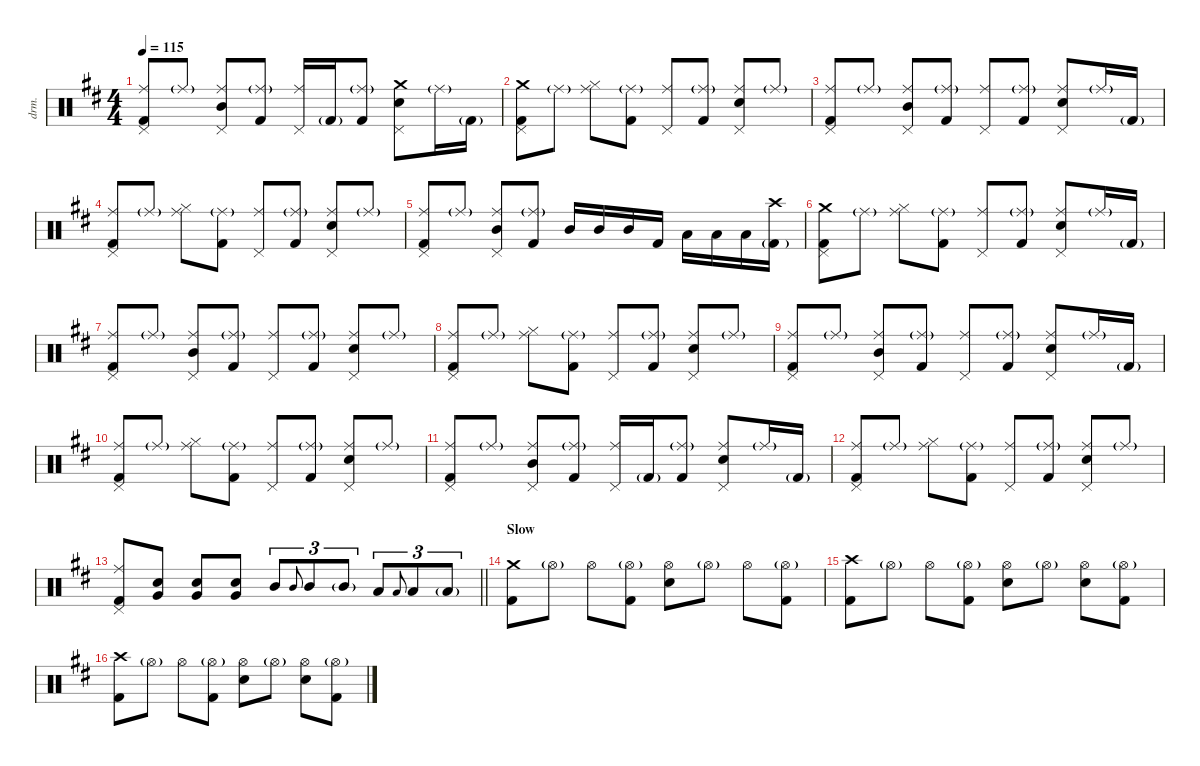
\defaultSystemsLayout 4
\hideDynamics
\bracketExtendMode nobrackets
\track ("Atma Anur" "drm.") {solo instrument percussion}
\staff {score}
\articulation defaults
\ts (4 4)
\tempo 115
\clef neutral
\ks bminor
("Ride (middle)"{acc forcenatural} "Pedal Hi-Hat (hit)"{acc forcenatural} "Kick (hit) 2"{acc forcenatural}).8{dy fff beam Up} "Ride (middle)"{g acc forcenatural}.8{dy ff beam Up} ("Ride (middle)"{acc forcenatural} "Mid Tom (hit)"{acc forcenatural} "Pedal Hi-Hat (hit)"{acc forcenatural}).8{dy fff beam Up} ("Ride (middle)"{g acc forcenatural} "Kick (hit) 2"{acc forcenatural}).8{beam Up} ("Ride (middle)"{acc forcenatural} "Pedal Hi-Hat (hit)"{acc forcenatural}).16{beam Up} "Kick (hit) 2"{g acc forcenatural}.16{dy ff beam Up} ("Ride (middle)"{g acc forcenatural} "Kick (hit) 2"{acc forcenatural}).8{dy fff beam Up} ("Crash medium (hit)"{acc forcenatural} "Snare (hit) 2"{acc forcenatural} "Pedal Hi-Hat (hit)"{acc forcenatural}).8{beam Down} "Ride (middle)"{g acc forcenatural}.16{dy ff beam Down} "Kick (hit) 2"{g acc forcenatural}.16{beam Down} |
("Crash medium (hit)"{acc forcenatural} "Pedal Hi-Hat (hit)"{acc forcenatural} "Kick (hit) 2"{acc forcenatural}).8{dy fff beam Down} "Ride (middle)"{g acc forcenatural}.8{dy ff beam Down} ("Ride (middle)"{acc forcenatural} "Hi-Hat (closed)"{acc forcenatural}).8{dy fff beam Down} ("Ride (middle)"{g acc forcenatural} "Kick (hit) 2"{acc forcenatural}).8{beam Down} ("Ride (middle)"{acc forcenatural} "Pedal Hi-Hat (hit)"{acc forcenatural}).8{beam Up} ("Ride (middle)"{g acc forcenatural} "Kick (hit) 2"{acc forcenatural}).8{beam Up} ("Ride (middle)"{acc forcenatural} "Snare (hit) 2"{acc forcenatural} "Pedal Hi-Hat (hit)"{acc forcenatural}).8{beam Up} "Ride (middle)"{g acc forcenatural}.8{dy ff beam Up} |
("Ride (middle)"{acc forcenatural} "Pedal Hi-Hat (hit)"{acc forcenatural} "Kick (hit) 2"{acc forcenatural}).8{dy fff beam Up} "Ride (middle)"{g acc forcenatural}.8{dy ff beam Up} ("Ride (middle)"{acc forcenatural} "Mid Tom (hit)"{acc forcenatural} "Pedal Hi-Hat (hit)"{acc forcenatural}).8{dy fff beam Up} ("Ride (middle)"{g acc forcenatural} "Kick (hit) 2"{acc forcenatural}).8{beam Up} ("Ride (middle)"{acc forcenatural} "Pedal Hi-Hat (hit)"{acc forcenatural}).8{beam Up} ("Ride (middle)"{g acc forcenatural} "Kick (hit) 2"{acc forcenatural}).8{beam Up} ("Ride (middle)"{acc forcenatural} "Snare (hit) 2"{acc forcenatural} "Pedal Hi-Hat (hit)"{acc forcenatural}).8{beam Up} "Ride (middle)"{g acc forcenatural}.16{dy ff beam Up} "Kick (hit) 2"{g acc forcenatural}.16{beam Up} |
("Ride (middle)"{acc forcenatural} "Pedal Hi-Hat (hit)"{acc forcenatural} "Kick (hit) 2"{acc forcenatural}).8{dy fff beam Up} "Ride (middle)"{g acc forcenatural}.8{dy ff beam Up} ("Ride (middle)"{acc forcenatural} "Hi-Hat (closed)"{acc forcenatural}).8{dy fff beam Down} ("Ride (middle)"{g acc forcenatural} "Kick (hit) 2"{acc forcenatural}).8{beam Down} ("Ride (middle)"{acc forcenatural} "Pedal Hi-Hat (hit)"{acc forcenatural}).8{beam Up} ("Ride (middle)"{g acc forcenatural} "Kick (hit) 2"{acc forcenatural}).8{beam Up} ("Ride (middle)"{acc forcenatural} "Snare (hit) 2"{acc forcenatural} "Pedal Hi-Hat (hit)"{acc forcenatural}).8{beam Up} "Ride (middle)"{g acc forcenatural}.8{dy ff beam Up} |
("Ride (middle)"{acc forcenatural} "Pedal Hi-Hat (hit)"{acc forcenatural} "Kick (hit) 2"{acc forcenatural}).8{dy fff beam Up} "Ride (middle)"{g acc forcenatural}.8{dy ff beam Up} ("Ride (middle)"{acc forcenatural} "Mid Tom (hit)"{acc forcenatural} "Pedal Hi-Hat (hit)"{acc forcenatural}).8{dy fff beam Up} ("Ride (middle)"{g acc forcenatural} "Kick (hit) 2"{acc forcenatural}).8{beam Up} "Mid Tom (hit)"{acc forcenatural}.16{beam Up} "Mid Tom (hit)"{acc forcenatural}.16{beam Up} "Mid Tom (hit)"{acc forcenatural}.16{beam Up} "Kick (hit) 2"{acc forcenatural}.16{beam Up} "Low Tom (hit)"{acc forcenatural}.16{beam Down} "Low Tom (hit)"{acc forcenatural}.16{beam Down} "Low Tom (hit)"{acc forcenatural}.16{beam Down} ("Crash high (hit)"{acc forcenatural} "Kick (hit) 2"{g acc forcenatural}).16{beam Down} |
("Crash medium (hit)"{acc forcenatural} "Pedal Hi-Hat (hit)"{acc forcenatural} "Kick (hit) 2"{acc forcenatural}).8{beam Down} "Ride (middle)"{g acc forcenatural}.8{dy ff beam Down} ("Ride (middle)"{acc forcenatural} "Hi-Hat (closed)"{acc forcenatural}).8{dy fff beam Down} ("Ride (middle)"{g acc forcenatural} "Kick (hit) 2"{acc forcenatural}).8{beam Down} ("Ride (middle)"{acc forcenatural} "Pedal Hi-Hat (hit)"{acc forcenatural}).8{beam Up} ("Ride (middle)"{g acc forcenatural} "Kick (hit) 2"{acc forcenatural}).8{beam Up} ("Ride (middle)"{acc forcenatural} "Snare (hit) 2"{acc forcenatural} "Pedal Hi-Hat (hit)"{acc forcenatural}).8{beam Up} "Ride (middle)"{g acc forcenatural}.16{dy ff beam Up} "Kick (hit) 2"{g acc forcenatural}.16{beam Up} |
("Ride (middle)"{acc forcenatural} "Pedal Hi-Hat (hit)"{acc forcenatural} "Kick (hit) 2"{acc forcenatural}).8{dy fff beam Up} "Ride (middle)"{g acc forcenatural}.8{dy ff beam Up} ("Ride (middle)"{acc forcenatural} "Mid Tom (hit)"{acc forcenatural} "Pedal Hi-Hat (hit)"{acc forcenatural}).8{dy fff beam Up} ("Ride (middle)"{g acc forcenatural} "Kick (hit) 2"{acc forcenatural}).8{beam Up} ("Ride (middle)"{acc forcenatural} "Pedal Hi-Hat (hit)"{acc forcenatural}).8{beam Up} ("Ride (middle)"{g acc forcenatural} "Kick (hit) 2"{acc forcenatural}).8{beam Up} ("Ride (middle)"{acc forcenatural} "Snare (hit) 2"{acc forcenatural} "Pedal Hi-Hat (hit)"{acc forcenatural}).8{beam Up} "Ride (middle)"{g acc forcenatural}.8{dy ff beam Up} |
("Ride (middle)"{acc forcenatural} "Pedal Hi-Hat (hit)"{acc forcenatural} "Kick (hit) 2"{acc forcenatural}).8{dy fff beam Up} "Ride (middle)"{g acc forcenatural}.8{dy ff beam Up} ("Ride (middle)"{acc forcenatural} "Hi-Hat (closed)"{acc forcenatural}).8{dy fff beam Down} ("Ride (middle)"{g acc forcenatural} "Kick (hit) 2"{acc forcenatural}).8{beam Down} ("Ride (middle)"{acc forcenatural} "Pedal Hi-Hat (hit)"{acc forcenatural}).8{beam Up} ("Ride (middle)"{g acc forcenatural} "Kick (hit) 2"{acc forcenatural}).8{beam Up} ("Ride (middle)"{acc forcenatural} "Snare (hit) 2"{acc forcenatural} "Pedal Hi-Hat (hit)"{acc forcenatural}).8{beam Up} "Ride (middle)"{g acc forcenatural}.8{dy ff beam Up} |
("Ride (middle)"{acc forcenatural} "Pedal Hi-Hat (hit)"{acc forcenatural} "Kick (hit) 2"{acc forcenatural}).8{dy fff beam Up} "Ride (middle)"{g acc forcenatural}.8{dy ff beam Up} ("Ride (middle)"{acc forcenatural} "Mid Tom (hit)"{acc forcenatural} "Pedal Hi-Hat (hit)"{acc forcenatural}).8{dy fff beam Up} ("Ride (middle)"{g acc forcenatural} "Kick (hit) 2"{acc forcenatural}).8{beam Up} ("Ride (middle)"{acc forcenatural} "Pedal Hi-Hat (hit)"{acc forcenatural}).8{beam Up} ("Ride (middle)"{g acc forcenatural} "Kick (hit) 2"{acc forcenatural}).8{beam Up} ("Ride (middle)"{acc forcenatural} "Snare (hit) 2"{acc forcenatural} "Pedal Hi-Hat (hit)"{acc forcenatural}).8{beam Up} "Ride (middle)"{g acc forcenatural}.16{dy ff beam Up} "Kick (hit) 2"{g acc forcenatural}.16{beam Up} |
("Ride (middle)"{acc forcenatural} "Pedal Hi-Hat (hit)"{acc forcenatural} "Kick (hit) 2"{acc forcenatural}).8{dy fff beam Up} "Ride (middle)"{g acc forcenatural}.8{dy ff beam Up} ("Ride (middle)"{acc forcenatural} "Hi-Hat (closed)"{acc forcenatural}).8{dy fff beam Down} ("Ride (middle)"{g acc forcenatural} "Kick (hit) 2"{acc forcenatural}).8{beam Down} ("Ride (middle)"{acc forcenatural} "Pedal Hi-Hat (hit)"{acc forcenatural}).8{beam Up} ("Ride (middle)"{g acc forcenatural} "Kick (hit) 2"{acc forcenatural}).8{beam Up} ("Ride (middle)"{acc forcenatural} "Snare (hit) 2"{acc forcenatural} "Pedal Hi-Hat (hit)"{acc forcenatural}).8{beam Up} "Ride (middle)"{g acc forcenatural}.8{dy ff beam Up} |
("Ride (middle)"{acc forcenatural} "Pedal Hi-Hat (hit)"{acc forcenatural} "Kick (hit) 2"{acc forcenatural}).8{dy fff beam Up} "Ride (middle)"{g acc forcenatural}.8{dy ff beam Up} ("Ride (middle)"{acc forcenatural} "Mid Tom (hit)"{acc forcenatural} "Pedal Hi-Hat (hit)"{acc forcenatural}).8{dy fff beam Up} ("Ride (middle)"{g acc forcenatural} "Kick (hit) 2"{acc forcenatural}).8{beam Up} ("Ride (middle)"{acc forcenatural} "Pedal Hi-Hat (hit)"{acc forcenatural}).16{beam Up} "Kick (hit) 2"{g acc forcenatural}.16{dy ff beam Up} ("Ride (middle)"{g acc forcenatural} "Kick (hit) 2"{acc forcenatural}).8{dy fff beam Up} ("Ride (middle)"{acc forcenatural} "Snare (hit) 2"{acc forcenatural} "Pedal Hi-Hat (hit)"{acc forcenatural}).8{beam Up} "Ride (middle)"{g acc forcenatural}.16{dy ff beam Up} "Kick (hit) 2"{g acc forcenatural}.16{beam Up} |
("Ride (middle)"{acc forcenatural} "Pedal Hi-Hat (hit)"{acc forcenatural} "Kick (hit) 2"{acc forcenatural}).8{dy fff beam Up} "Ride (middle)"{g acc forcenatural}.8{dy ff beam Up} ("Ride (middle)"{acc forcenatural} "Hi-Hat (closed)"{acc forcenatural}).8{dy fff beam Down} ("Ride (middle)"{g acc forcenatural} "Kick (hit) 2"{acc forcenatural}).8{beam Down} ("Ride (middle)"{acc forcenatural} "Pedal Hi-Hat (hit)"{acc forcenatural}).8{beam Up} ("Ride (middle)"{g acc forcenatural} "Kick (hit) 2"{acc forcenatural}).8{beam Up} ("Ride (middle)"{acc forcenatural} "Snare (hit) 2"{acc forcenatural} "Pedal Hi-Hat (hit)"{acc forcenatural}).8{beam Up} "Ride (middle)"{g acc forcenatural}.8{dy ff beam Up} |
\barLineRight lightlight
("Ride (middle)"{acc forcenatural} "Pedal Hi-Hat (hit)"{acc forcenatural} "Kick (hit) 2"{acc forcenatural}).8{dy fff beam Up} ("Very Low Tom (hit)"{acc forcenatural} "Snare (hit) 2"{acc forcenatural}).8{dy mp beam Up} ("Very Low Tom (hit)"{acc forcenatural} "Snare (hit) 2"{acc forcenatural}).8{dy f beam Up} ("Very Low Tom (hit)"{acc forcenatural} "Snare (hit) 2"{acc forcenatural}).8{dy fff beam Up} "Mid Tom (hit)"{acc forcenatural}.8{tu (3 2) beam Up} "Mid Tom (hit)"{acc forcenatural}.8{gr onbeat dy ff beam Up} "Mid Tom (hit)"{acc forcenatural}.8{tu (3 2) dy fff beam Up} "Mid Tom (hit)"{g acc forcenatural}.8{tu (3 2) dy ff beam Up} "Low Tom (hit)"{acc forcenatural}.8{tu (3 2) dy fff beam Up} "Low Tom (hit)"{acc forcenatural}.8{gr onbeat dy ff beam Up} "Low Tom (hit)"{acc forcenatural}.8{tu (3 2) dy fff beam Up} "Low Tom (hit)"{g acc forcenatural}.8{tu (3 2) dy ff beam Up} |
\section ("" "Slow")
("Crash medium (hit)"{acc forcenatural} "Kick (hit) 2"{acc forcenatural}).8{dy fff beam Down} "Hi-Hat (open)"{g acc forcenatural}.8{dy ff beam Down} "Hi-Hat (open)"{acc forcenatural}.8{dy fff beam Down} ("Hi-Hat (open)"{g acc forcenatural} "Kick (hit) 2"{acc forcenatural}).8{beam Down} ("Hi-Hat (open)"{acc forcenatural} "Snare (hit) 2"{acc forcenatural}).8{beam Down} "Hi-Hat (open)"{g acc forcenatural}.8{dy ff beam Down} "Hi-Hat (open)"{acc forcenatural}.8{dy fff beam Down} ("Hi-Hat (open)"{g acc forcenatural} "Kick (hit) 2"{acc forcenatural}).8{beam Down} |
("Crash high (hit)"{acc forcenatural} "Kick (hit) 2"{acc forcenatural}).8{beam Down} "Hi-Hat (open)"{g acc forcenatural}.8{dy ff beam Down} "Hi-Hat (open)"{acc forcenatural}.8{dy fff beam Down} ("Hi-Hat (open)"{g acc forcenatural} "Kick (hit) 2"{acc forcenatural}).8{beam Down} ("Hi-Hat (open)"{acc forcenatural} "Snare (hit) 2"{acc forcenatural}).8{beam Down} "Hi-Hat (open)"{g acc forcenatural}.8{dy ff beam Down} ("Hi-Hat (open)"{acc forcenatural} "Snare (hit) 2"{acc forcenatural}).8{dy fff beam Down} ("Hi-Hat (open)"{g acc forcenatural} "Kick (hit) 2"{acc forcenatural}).8{beam Down} |
("Crash high (hit)"{acc forcenatural} "Kick (hit) 2"{acc forcenatural}).8{beam Down} "Hi-Hat (open)"{g acc forcenatural}.8{dy ff beam Down} "Hi-Hat (open)"{acc forcenatural}.8{dy fff beam Down} ("Hi-Hat (open)"{g acc forcenatural} "Kick (hit) 2"{acc forcenatural}).8{beam Down} ("Hi-Hat (open)"{acc forcenatural} "Snare (hit) 2"{acc forcenatural}).8{beam Down} "Hi-Hat (open)"{g acc forcenatural}.8{dy ff beam Down} ("Hi-Hat (open)"{acc forcenatural} "Snare (hit) 2"{acc forcenatural}).8{dy fff beam Down} ("Hi-Hat (open)"{g acc forcenatural} "Kick (hit) 2"{acc forcenatural}).8{beam Down}
